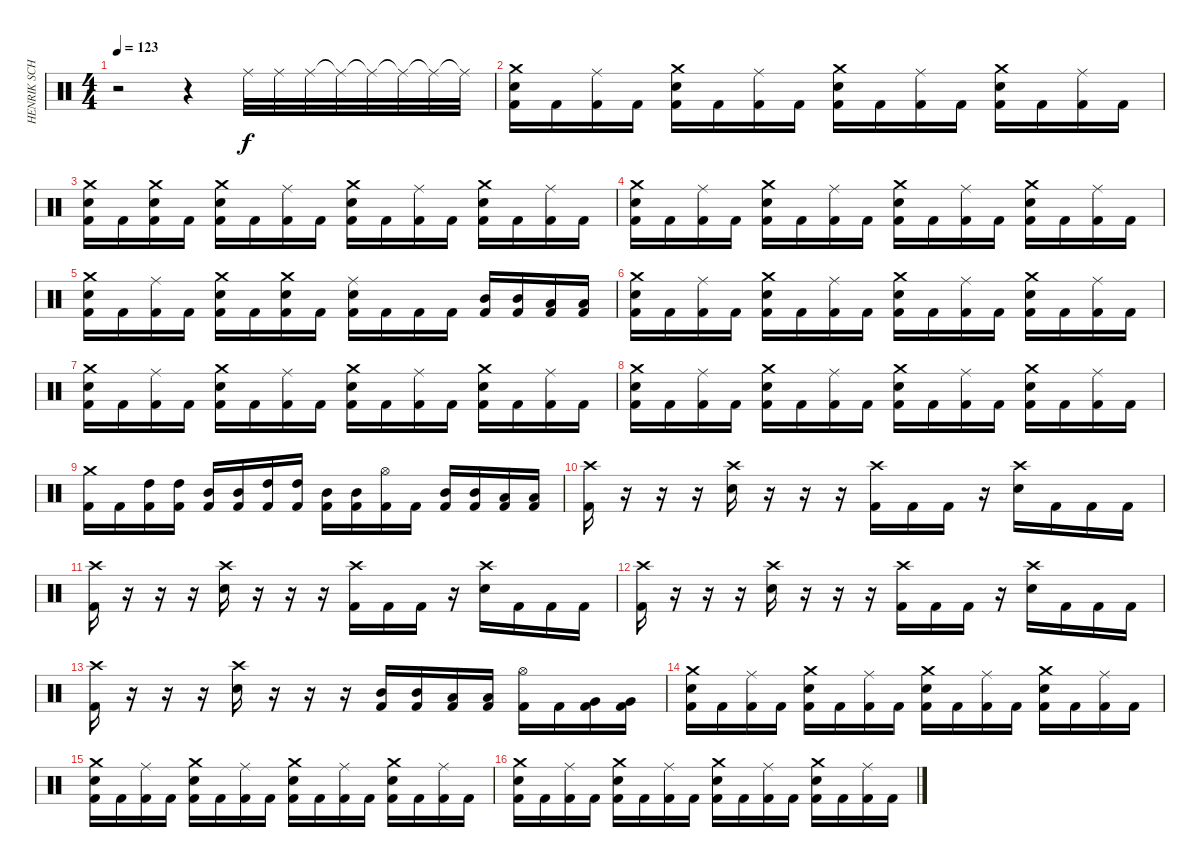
\track ("HENRIK SCHÖNSTÖM " "HENRIK SCH") {instrument percussion}
\staff {score}
\articulation defaults
\ts (4 4)
\tempo 123
\clef neutral
\ks c
r.2{dy f} r.4 "Ride (middle)".32 "Ride (middle)".32 "Ride (middle)".32 "Ride (middle)"{t}.32 "Ride (middle)"{t}.32 "Ride (middle)"{t}.32 "Ride (middle)"{t}.32 "Ride (middle)"{t}.32 |
("Crash medium (hit)" "Snare (hit) 2" "Kick (hit) 2").16 "Kick (hit) 2".16 ("Ride (middle)" "Kick (hit) 2").16 "Kick (hit) 2".16 ("Crash medium (hit)" "Snare (hit) 2" "Kick (hit) 2").16 "Kick (hit) 2".16 ("Ride (middle)" "Kick (hit) 2").16 "Kick (hit) 2".16 ("Crash medium (hit)" "Snare (hit) 2" "Kick (hit) 2").16 "Kick (hit) 2".16 ("Ride (middle)" "Kick (hit) 2").16 "Kick (hit) 2".16 ("Crash medium (hit)" "Snare (hit) 2" "Kick (hit) 2").16 "Kick (hit) 2".16 ("Ride (middle)" "Kick (hit) 2").16 "Kick (hit) 2".16 |
("Crash medium (hit)" "Snare (hit) 2" "Kick (hit) 2").16 "Kick (hit) 2".16 ("Crash medium (hit)" "Snare (hit) 2" "Kick (hit) 2").16 "Kick (hit) 2".16 ("Crash medium (hit)" "Snare (hit) 2" "Kick (hit) 2").16 "Kick (hit) 2".16 ("Ride (middle)" "Kick (hit) 2").16 "Kick (hit) 2".16 ("Crash medium (hit)" "Snare (hit) 2" "Kick (hit) 2").16 "Kick (hit) 2".16 ("Ride (middle)" "Kick (hit) 2").16 "Kick (hit) 2".16 ("Crash medium (hit)" "Snare (hit) 2" "Kick (hit) 2").16 "Kick (hit) 2".16 ("Ride (middle)" "Kick (hit) 2").16 "Kick (hit) 2".16 |
("Crash medium (hit)" "Snare (hit) 2" "Kick (hit) 2").16 "Kick (hit) 2".16 ("Ride (middle)" "Kick (hit) 2").16 "Kick (hit) 2".16 ("Crash medium (hit)" "Snare (hit) 2" "Kick (hit) 2").16 "Kick (hit) 2".16 ("Ride (middle)" "Kick (hit) 2").16 "Kick (hit) 2".16 ("Crash medium (hit)" "Snare (hit) 2" "Kick (hit) 2").16 "Kick (hit) 2".16 ("Ride (middle)" "Kick (hit) 2").16 "Kick (hit) 2".16 ("Crash medium (hit)" "Snare (hit) 2" "Kick (hit) 2").16 "Kick (hit) 2".16 ("Ride (middle)" "Kick (hit) 2").16 "Kick (hit) 2".16 |
("Crash medium (hit)" "Snare (hit) 2" "Kick (hit) 2").16 "Kick (hit) 2".16 ("Ride (middle)" "Kick (hit) 2").16 "Kick (hit) 2".16 ("Crash medium (hit)" "Snare (hit) 2" "Kick (hit) 2").16 "Kick (hit) 2".16 ("Crash medium (hit)" "Snare (hit) 2" "Kick (hit) 2").16 "Kick (hit) 2".16 ("Ride (middle)" "Snare (hit) 2" "Kick (hit) 2").16 "Kick (hit) 2".16 "Kick (hit) 2".16 "Kick (hit) 2".16 ("Mid Tom (hit)" "Kick (hit) 2").16 ("Mid Tom (hit)" "Kick (hit) 2").16 ("Low Tom (hit)" "Kick (hit) 2").16 ("Low Tom (hit)" "Kick (hit) 2").16 |
("Crash medium (hit)" "Snare (hit) 2" "Kick (hit) 2").16 "Kick (hit) 2".16 ("Ride (middle)" "Kick (hit) 2").16 "Kick (hit) 2".16 ("Crash medium (hit)" "Snare (hit) 2" "Kick (hit) 2").16 "Kick (hit) 2".16 ("Ride (middle)" "Kick (hit) 2").16 "Kick (hit) 2".16 ("Crash medium (hit)" "Snare (hit) 2" "Kick (hit) 2").16 "Kick (hit) 2".16 ("Ride (middle)" "Kick (hit) 2").16 "Kick (hit) 2".16 ("Crash medium (hit)" "Snare (hit) 2" "Kick (hit) 2").16 "Kick (hit) 2".16 ("Ride (middle)" "Kick (hit) 2").16 "Kick (hit) 2".16 |
("Crash medium (hit)" "Snare (hit) 2" "Kick (hit) 2").16 "Kick (hit) 2".16 ("Ride (middle)" "Kick (hit) 2").16 "Kick (hit) 2".16 ("Crash medium (hit)" "Snare (hit) 2" "Kick (hit) 2").16 "Kick (hit) 2".16 ("Ride (middle)" "Kick (hit) 2").16 "Kick (hit) 2".16 ("Crash medium (hit)" "Snare (hit) 2" "Kick (hit) 2").16 "Kick (hit) 2".16 ("Ride (middle)" "Kick (hit) 2").16 "Kick (hit) 2".16 ("Crash medium (hit)" "Snare (hit) 2" "Kick (hit) 2").16 "Kick (hit) 2".16 ("Ride (middle)" "Kick (hit) 2").16 "Kick (hit) 2".16 |
("Crash medium (hit)" "Snare (hit) 2" "Kick (hit) 2").16 "Kick (hit) 2".16 ("Ride (middle)" "Kick (hit) 2").16 "Kick (hit) 2".16 ("Crash medium (hit)" "Snare (hit) 2" "Kick (hit) 2").16 "Kick (hit) 2".16 ("Ride (middle)" "Kick (hit) 2").16 "Kick (hit) 2".16 ("Crash medium (hit)" "Snare (hit) 2" "Kick (hit) 2").16 "Kick (hit) 2".16 ("Ride (middle)" "Kick (hit) 2").16 "Kick (hit) 2".16 ("Crash medium (hit)" "Snare (hit) 2" "Kick (hit) 2").16 "Kick (hit) 2".16 ("Ride (middle)" "Kick (hit) 2").16 "Kick (hit) 2".16 |
("Crash medium (hit)" "Kick (hit) 2").16 "Kick (hit) 2".16 ("High Tom (hit)" "Kick (hit) 2").16 ("High Tom (hit)" "Kick (hit) 2").16 ("Mid Tom (hit)" "Kick (hit) 2").16 ("Mid Tom (hit)" "Kick (hit) 2").16 ("High Tom (hit)" "Kick (hit) 2").16 ("High Tom (hit)" "Kick (hit) 2").16 ("Mid Tom (hit)" "Kick (hit) 2").16 ("Mid Tom (hit)" "Kick (hit) 2").16 ("Hi-Hat (open)" "Kick (hit) 2").16 "Kick (hit) 2".16 ("Mid Tom (hit)" "Kick (hit) 2").16 ("Mid Tom (hit)" "Kick (hit) 2").16 ("Low Tom (hit)" "Kick (hit) 2").16 ("Low Tom (hit)" "Kick (hit) 2").16 |
("Crash high (hit)" "Kick (hit) 2").16 r.16 r.16 r.16 ("Crash high (hit)" "Snare (hit) 2").16 r.16 r.16 r.16 ("Crash high (hit)" "Kick (hit) 2").16 "Kick (hit) 2".16 "Kick (hit) 2".16 r.16 ("Crash high (hit)" "Snare (hit) 2").16 "Kick (hit) 2".16 "Kick (hit) 2".16 "Kick (hit) 2".16 |
("Crash high (hit)" "Kick (hit) 2").16 r.16 r.16 r.16 ("Crash high (hit)" "Snare (hit) 2").16 r.16 r.16 r.16 ("Crash high (hit)" "Kick (hit) 2").16 "Kick (hit) 2".16 "Kick (hit) 2".16 r.16 ("Crash high (hit)" "Snare (hit) 2").16 "Kick (hit) 2".16 "Kick (hit) 2".16 "Kick (hit) 2".16 |
("Crash high (hit)" "Kick (hit) 2").16 r.16 r.16 r.16 ("Crash high (hit)" "Snare (hit) 2").16 r.16 r.16 r.16 ("Crash high (hit)" "Kick (hit) 2").16 "Kick (hit) 2".16 "Kick (hit) 2".16 r.16 ("Crash high (hit)" "Snare (hit) 2").16 "Kick (hit) 2".16 "Kick (hit) 2".16 "Kick (hit) 2".16 |
("Crash high (hit)" "Kick (hit) 2").16 r.16 r.16 r.16 ("Crash high (hit)" "Snare (hit) 2").16 r.16 r.16 r.16 ("Mid Tom (hit)" "Kick (hit) 2").16 ("Mid Tom (hit)" "Kick (hit) 2").16 ("Low Tom (hit)" "Kick (hit) 2").16 ("Low Tom (hit)" "Kick (hit) 2").16 ("Hi-Hat (open)" "Kick (hit) 2").16 "Kick (hit) 2".16 ("Very Low Tom (hit)" "Kick (hit) 2").16 ("Very Low Tom (hit)" "Kick (hit) 2").16 |
("Crash medium (hit)" "Snare (hit) 2" "Kick (hit) 2").16 "Kick (hit) 2".16 ("Ride (middle)" "Kick (hit) 2").16 "Kick (hit) 2".16 ("Crash medium (hit)" "Snare (hit) 2" "Kick (hit) 2").16 "Kick (hit) 2".16 ("Ride (middle)" "Kick (hit) 2").16 "Kick (hit) 2".16 ("Crash medium (hit)" "Snare (hit) 2" "Kick (hit) 2").16 "Kick (hit) 2".16 ("Ride (middle)" "Kick (hit) 2").16 "Kick (hit) 2".16 ("Crash medium (hit)" "Snare (hit) 2" "Kick (hit) 2").16 "Kick (hit) 2".16 ("Ride (middle)" "Kick (hit) 2").16 "Kick (hit) 2".16 |
("Crash medium (hit)" "Snare (hit) 2" "Kick (hit) 2").16 "Kick (hit) 2".16 ("Ride (middle)" "Kick (hit) 2").16 "Kick (hit) 2".16 ("Crash medium (hit)" "Snare (hit) 2" "Kick (hit) 2").16 "Kick (hit) 2".16 ("Ride (middle)" "Kick (hit) 2").16 "Kick (hit) 2".16 ("Crash medium (hit)" "Snare (hit) 2" "Kick (hit) 2").16 "Kick (hit) 2".16 ("Ride (middle)" "Kick (hit) 2").16 "Kick (hit) 2".16 ("Crash medium (hit)" "Snare (hit) 2" "Kick (hit) 2").16 "Kick (hit) 2".16 ("Ride (middle)" "Kick (hit) 2").16 "Kick (hit) 2".16 |
("Crash medium (hit)" "Snare (hit) 2" "Kick (hit) 2").16 "Kick (hit) 2".16 ("Ride (middle)" "Kick (hit) 2").16 "Kick (hit) 2".16 ("Crash medium (hit)" "Snare (hit) 2" "Kick (hit) 2").16 "Kick (hit) 2".16 ("Ride (middle)" "Kick (hit) 2").16 "Kick (hit) 2".16 ("Crash medium (hit)" "Snare (hit) 2" "Kick (hit) 2").16 "Kick (hit) 2".16 ("Ride (middle)" "Kick (hit) 2").16 "Kick (hit) 2".16 ("Crash medium (hit)" "Snare (hit) 2" "Kick (hit) 2").16 "Kick (hit) 2".16 ("Ride (middle)" "Kick (hit) 2").16 "Kick (hit) 2".16
